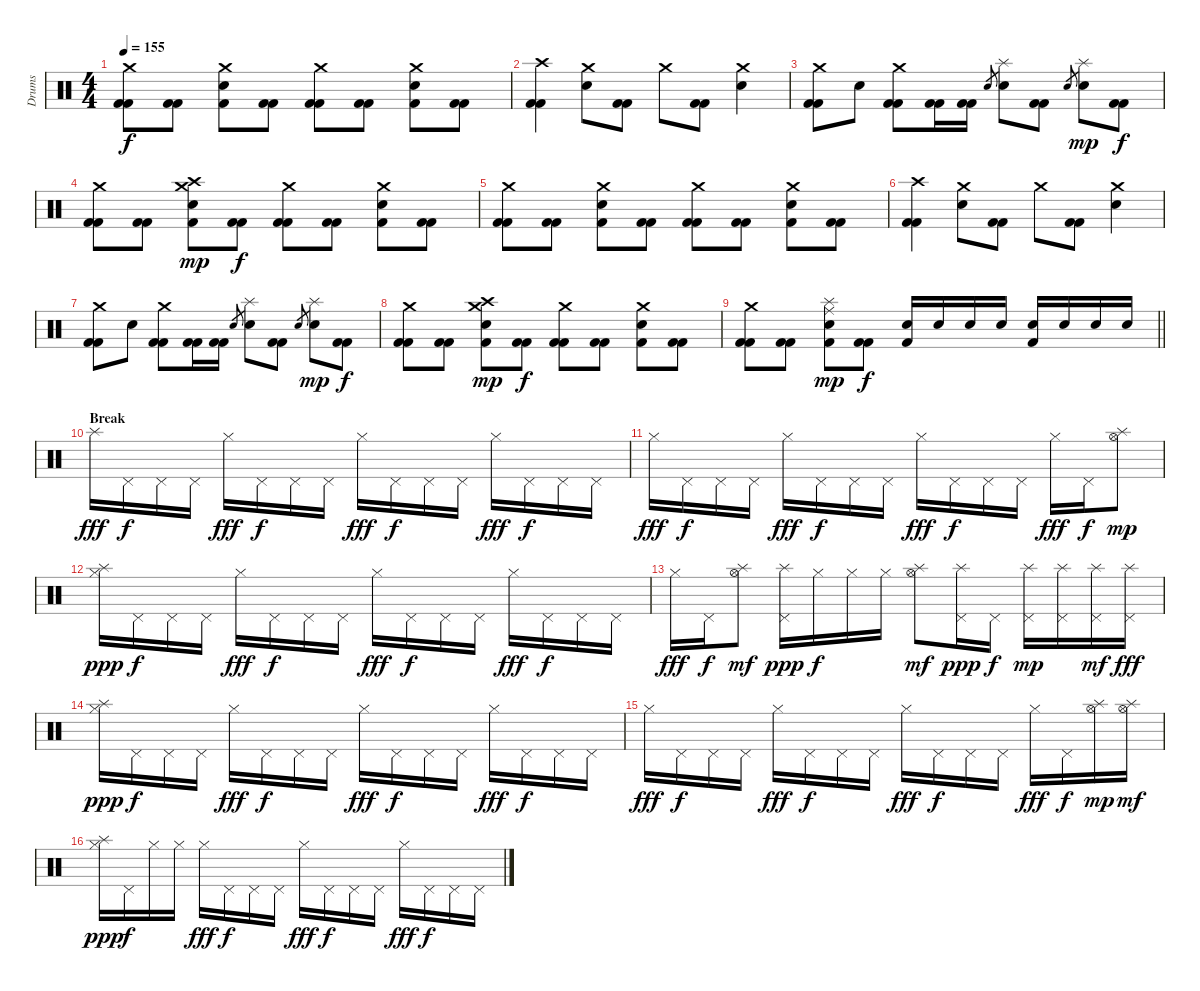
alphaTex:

\track ("Drums" "Drums") {instrument percussion}
\staff {score}
\articulation defaults
\ts (4 4)
\tempo 155
\clef neutral
\ks c
("Crash medium (hit)" "Kick (hit) 2" "Kick (hit) 2").8{dy f} ("Kick (hit) 2" "Kick (hit) 2").8 ("Crash medium (hit)" "Electric Snare (hit)" "Kick (hit) 2").8 ("Kick (hit) 2" "Kick (hit) 2").8 ("Crash medium (hit)" "Kick (hit) 2" "Kick (hit) 2").8 ("Kick (hit) 2" "Kick (hit) 2").8 ("Crash medium (hit)" "Electric Snare (hit)" "Kick (hit) 2").8 ("Kick (hit) 2" "Kick (hit) 2").8 |
("Crash high (hit)" "Kick (hit) 2" "Kick (hit) 2").4 ("Crash medium (hit)" "Electric Snare (hit)").8 ("Kick (hit) 2" "Kick (hit) 2").8 "Crash medium (hit)".8 ("Kick (hit) 2" "Kick (hit) 2").8 ("Crash medium (hit)" "Electric Snare (hit)").4 |
("Crash medium (hit)" "Kick (hit) 2" "Kick (hit) 2").8 "Electric Snare (hit)".8 ("Crash medium (hit)" "Kick (hit) 2" "Kick (hit) 2").8 ("Kick (hit) 2" "Kick (hit) 2").16 ("Kick (hit) 2" "Kick (hit) 2").16 "Electric Snare (hit)".8{gr} ("Splash (hit)" "Electric Snare (hit)").8 ("Kick (hit) 2" "Kick (hit) 2").8 "Electric Snare (hit)".8{gr} ("Splash (hit)" "Electric Snare (hit)").8{dy mp} ("Kick (hit) 2" "Kick (hit) 2").8{dy f} |
("Crash medium (hit)" "Kick (hit) 2" "Kick (hit) 2").8 ("Kick (hit) 2" "Kick (hit) 2").8 ("Crash medium (hit)" "Crash high (hit)" "Electric Snare (hit)" "Kick (hit) 2").8{dy mp} ("Kick (hit) 2" "Kick (hit) 2").8{dy f} ("Crash medium (hit)" "Kick (hit) 2" "Kick (hit) 2").8 ("Kick (hit) 2" "Kick (hit) 2").8 ("Crash medium (hit)" "Electric Snare (hit)" "Kick (hit) 2").8 ("Kick (hit) 2" "Kick (hit) 2").8 |
("Crash medium (hit)" "Kick (hit) 2" "Kick (hit) 2").8 ("Kick (hit) 2" "Kick (hit) 2").8 ("Crash medium (hit)" "Electric Snare (hit)" "Kick (hit) 2").8 ("Kick (hit) 2" "Kick (hit) 2").8 ("Crash medium (hit)" "Kick (hit) 2" "Kick (hit) 2").8 ("Kick (hit) 2" "Kick (hit) 2").8 ("Crash medium (hit)" "Electric Snare (hit)" "Kick (hit) 2").8 ("Kick (hit) 2" "Kick (hit) 2").8 |
("Crash high (hit)" "Kick (hit) 2" "Kick (hit) 2").4 ("Crash medium (hit)" "Electric Snare (hit)").8 ("Kick (hit) 2" "Kick (hit) 2").8 "Crash medium (hit)".8 ("Kick (hit) 2" "Kick (hit) 2").8 ("Crash medium (hit)" "Electric Snare (hit)").4 |
("Crash medium (hit)" "Kick (hit) 2" "Kick (hit) 2").8 "Electric Snare (hit)".8 ("Crash medium (hit)" "Kick (hit) 2" "Kick (hit) 2").8 ("Kick (hit) 2" "Kick (hit) 2").16 ("Kick (hit) 2" "Kick (hit) 2").16 "Electric Snare (hit)".8{gr} ("Splash (hit)" "Electric Snare (hit)").8 ("Kick (hit) 2" "Kick (hit) 2").8 "Electric Snare (hit)".8{gr} ("Splash (hit)" "Electric Snare (hit)").8{dy mp} ("Kick (hit) 2" "Kick (hit) 2").8{dy f} |
("Crash medium (hit)" "Kick (hit) 2" "Kick (hit) 2").8 ("Kick (hit) 2" "Kick (hit) 2").8 ("Crash medium (hit)" "Crash high (hit)" "Electric Snare (hit)" "Kick (hit) 2").8{dy mp} ("Kick (hit) 2" "Kick (hit) 2").8{dy f} ("Crash medium (hit)" "Kick (hit) 2" "Kick (hit) 2").8 ("Kick (hit) 2" "Kick (hit) 2").8 ("Crash medium (hit)" "Electric Snare (hit)" "Kick (hit) 2").8 ("Kick (hit) 2" "Kick (hit) 2").8 |
\barLineRight lightlight
("Crash medium (hit)" "Kick (hit) 2" "Kick (hit) 2").8 ("Kick (hit) 2" "Kick (hit) 2").8 ("Splash (hit)" "Ride (middle)" "Electric Snare (hit)" "Kick (hit) 2").8{dy mp} ("Kick (hit) 2" "Kick (hit) 2").8{dy f} ("Electric Snare (hit)" "Kick (hit) 2").16 "Electric Snare (hit)".16 "Electric Snare (hit)".16 "Electric Snare (hit)".16 ("Electric Snare (hit)" "Kick (hit) 2").16 "Electric Snare (hit)".16 "Electric Snare (hit)".16 "Electric Snare (hit)".16 |
\section ("" "Break")
"Splash (hit)".16{dy fff} "Pedal Hi-Hat (hit)".16{dy f} "Pedal Hi-Hat (hit)".16 "Pedal Hi-Hat (hit)".16 "Hi-Hat (closed)".16{dy fff} "Pedal Hi-Hat (hit)".16{dy f} "Pedal Hi-Hat (hit)".16 "Pedal Hi-Hat (hit)".16 "Hi-Hat (closed)".16{dy fff} "Pedal Hi-Hat (hit)".16{dy f} "Pedal Hi-Hat (hit)".16 "Pedal Hi-Hat (hit)".16 "Hi-Hat (closed)".16{dy fff} "Pedal Hi-Hat (hit)".16{dy f} "Pedal Hi-Hat (hit)".16 "Pedal Hi-Hat (hit)".16 |
"Hi-Hat (closed)".16{dy fff} "Pedal Hi-Hat (hit)".16{dy f} "Pedal Hi-Hat (hit)".16 "Pedal Hi-Hat (hit)".16 "Hi-Hat (closed)".16{dy fff} "Pedal Hi-Hat (hit)".16{dy f} "Pedal Hi-Hat (hit)".16 "Pedal Hi-Hat (hit)".16 "Hi-Hat (closed)".16{dy fff} "Pedal Hi-Hat (hit)".16{dy f} "Pedal Hi-Hat (hit)".16 "Pedal Hi-Hat (hit)".16 "Hi-Hat (closed)".16{dy fff} "Pedal Hi-Hat (hit)".16{dy f} ("Hi-Hat (open)" "Splash (hit)").8{dy mp} |
("Hi-Hat (closed)" "Splash (hit)").16{dy ppp} "Pedal Hi-Hat (hit)".16{dy f} "Pedal Hi-Hat (hit)".16 "Pedal Hi-Hat (hit)".16 "Hi-Hat (closed)".16{dy fff} "Pedal Hi-Hat (hit)".16{dy f} "Pedal Hi-Hat (hit)".16 "Pedal Hi-Hat (hit)".16 "Hi-Hat (closed)".16{dy fff} "Pedal Hi-Hat (hit)".16{dy f} "Pedal Hi-Hat (hit)".16 "Pedal Hi-Hat (hit)".16 "Hi-Hat (closed)".16{dy fff} "Pedal Hi-Hat (hit)".16{dy f} "Pedal Hi-Hat (hit)".16 "Pedal Hi-Hat (hit)".16 |
"Hi-Hat (closed)".16{dy fff} "Pedal Hi-Hat (hit)".16{dy f} ("Hi-Hat (open)" "Splash (hit)").8{dy mf} ("Pedal Hi-Hat (hit)" "Splash (hit)").16{dy ppp} "Hi-Hat (closed)".16{dy f} "Hi-Hat (closed)".16 "Hi-Hat (closed)".16 ("Hi-Hat (open)" "Splash (hit)").8{dy mf} ("Pedal Hi-Hat (hit)" "Splash (hit)").16{dy ppp} "Pedal Hi-Hat (hit)".16{dy f} ("Pedal Hi-Hat (hit)" "Splash (hit)").16{dy mp} ("Pedal Hi-Hat (hit)" "Splash (hit)").16 ("Pedal Hi-Hat (hit)" "Splash (hit)").16{dy mf} ("Pedal Hi-Hat (hit)" "Splash (hit)").16{dy fff} |
("Hi-Hat (closed)" "Splash (hit)").16{dy ppp} "Pedal Hi-Hat (hit)".16{dy f} "Pedal Hi-Hat (hit)".16 "Pedal Hi-Hat (hit)".16 "Hi-Hat (closed)".16{dy fff} "Pedal Hi-Hat (hit)".16{dy f} "Pedal Hi-Hat (hit)".16 "Pedal Hi-Hat (hit)".16 "Hi-Hat (closed)".16{dy fff} "Pedal Hi-Hat (hit)".16{dy f} "Pedal Hi-Hat (hit)".16 "Pedal Hi-Hat (hit)".16 "Hi-Hat (closed)".16{dy fff} "Pedal Hi-Hat (hit)".16{dy f} "Pedal Hi-Hat (hit)".16 "Pedal Hi-Hat (hit)".16 |
"Hi-Hat (closed)".16{dy fff} "Pedal Hi-Hat (hit)".16{dy f} "Pedal Hi-Hat (hit)".16 "Pedal Hi-Hat (hit)".16 "Hi-Hat (closed)".16{dy fff} "Pedal Hi-Hat (hit)".16{dy f} "Pedal Hi-Hat (hit)".16 "Pedal Hi-Hat (hit)".16 "Hi-Hat (closed)".16{dy fff} "Pedal Hi-Hat (hit)".16{dy f} "Pedal Hi-Hat (hit)".16 "Pedal Hi-Hat (hit)".16 "Hi-Hat (closed)".16{dy fff} "Pedal Hi-Hat (hit)".16{dy f} ("Hi-Hat (open)" "Splash (hit)").16{dy mp} ("Hi-Hat (open)" "Splash (hit)").16{dy mf} |
("Hi-Hat (closed)" "Splash (hit)").16{dy ppp} "Pedal Hi-Hat (hit)".16{dy f} "Hi-Hat (closed)".16 "Hi-Hat (closed)".16 "Hi-Hat (closed)".16{dy fff} "Pedal Hi-Hat (hit)".16{dy f} "Pedal Hi-Hat (hit)".16 "Pedal Hi-Hat (hit)".16 "Hi-Hat (closed)".16{dy fff} "Pedal Hi-Hat (hit)".16{dy f} "Pedal Hi-Hat (hit)".16 "Pedal Hi-Hat (hit)".16 "Hi-Hat (closed)".16{dy fff} "Pedal Hi-Hat (hit)".16{dy f} "Pedal Hi-Hat (hit)".16 "Pedal Hi-Hat (hit)".16
